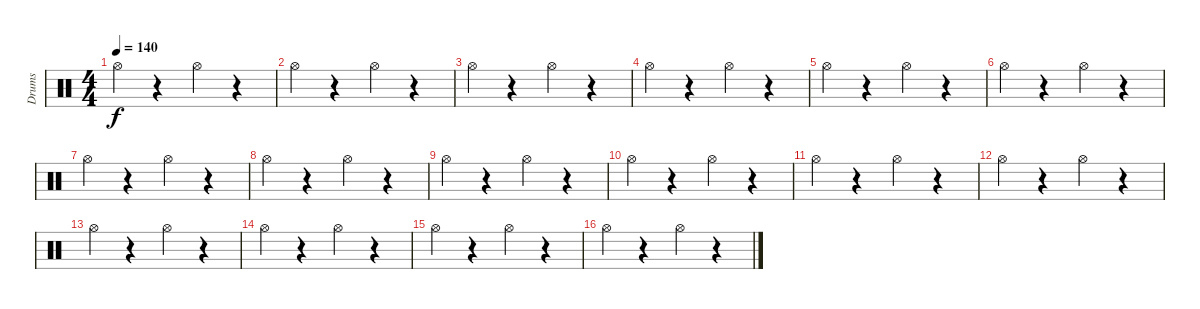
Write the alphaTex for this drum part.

\track ("Drums" "Drums") {instrument percussion}
\staff {score}
\articulation defaults
\ts (4 4)
\tempo 140
\clef neutral
\ks c "Hi-Hat (open)".4{dy f}
r.4 "Hi-Hat (open)".4 r.4 |
"Hi-Hat (open)".4 r.4 "Hi-Hat (open)".4 r.4 |
"Hi-Hat (open)".4 r.4 "Hi-Hat (open)".4 r.4 |
"Hi-Hat (open)".4 r.4 "Hi-Hat (open)".4 r.4 |
"Hi-Hat (open)".4 r.4 "Hi-Hat (open)".4 r.4 |
"Hi-Hat (open)".4 r.4 "Hi-Hat (open)".4 r.4 |
"Hi-Hat (open)".4 r.4 "Hi-Hat (open)".4 r.4 |
"Hi-Hat (open)".4 r.4 "Hi-Hat (open)".4 r.4 |
"Hi-Hat (open)".4 r.4 "Hi-Hat (open)".4 r.4 |
"Hi-Hat (open)".4 r.4 "Hi-Hat (open)".4 r.4 |
"Hi-Hat (open)".4 r.4 "Hi-Hat (open)".4 r.4 |
"Hi-Hat (open)".4 r.4 "Hi-Hat (open)".4 r.4 |
"Hi-Hat (open)".4 r.4 "Hi-Hat (open)".4 r.4 |
"Hi-Hat (open)".4 r.4 "Hi-Hat (open)".4 r.4 |
"Hi-Hat (open)".4 r.4 "Hi-Hat (open)".4 r.4 |
"Hi-Hat (open)".4 r.4 "Hi-Hat (open)".4 r.4
